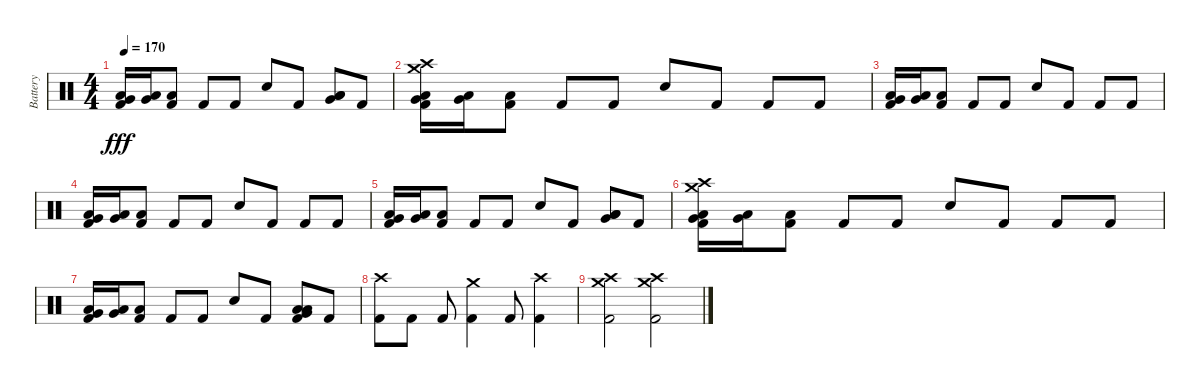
\track ("Battery" "Battery") {instrument percussion}
\staff {score}
\articulation defaults
\ts (4 4)
\tempo 170
\clef neutral
\ks c
("Low Tom (hit)" "Very Low Tom (hit)" "Kick (hit) 2").16{dy fff} ("Very Low Tom (hit)" "Low Floor Tom (hit)").16 ("Low Floor Tom (hit)" "Kick (hit) 2").8 "Kick (hit) 2".8 "Kick (hit) 2".8 "Snare (hit) 2".8 "Kick (hit) 2".8 ("Low Tom (hit)" "Very Low Tom (hit)" "Low Floor Tom (hit)").8 "Kick (hit) 2".8 |
("Crash high (hit)" "Crash medium (hit)" "Low Tom (hit)" "Very Low Tom (hit)" "Kick (hit) 2").16 ("Very Low Tom (hit)" "Low Floor Tom (hit)").16 ("Low Floor Tom (hit)" "Kick (hit) 2").8 "Kick (hit) 2".8 "Kick (hit) 2".8 "Snare (hit) 2".8 "Kick (hit) 2".8 "Kick (hit) 2".8 "Kick (hit) 2".8 |
("Low Tom (hit)" "Very Low Tom (hit)" "Kick (hit) 2").16 ("Very Low Tom (hit)" "Low Floor Tom (hit)").16 ("Low Floor Tom (hit)" "Kick (hit) 2").8 "Kick (hit) 2".8 "Kick (hit) 2".8 "Snare (hit) 2".8 "Kick (hit) 2".8 "Kick (hit) 2".8 "Kick (hit) 2".8 |
("Low Tom (hit)" "Very Low Tom (hit)" "Kick (hit) 2").16 ("Very Low Tom (hit)" "Low Floor Tom (hit)").16 ("Low Floor Tom (hit)" "Kick (hit) 2").8 "Kick (hit) 2".8 "Kick (hit) 2".8 "Snare (hit) 2".8 "Kick (hit) 2".8 "Kick (hit) 2".8 "Kick (hit) 2".8 |
("Low Tom (hit)" "Very Low Tom (hit)" "Kick (hit) 2").16 ("Very Low Tom (hit)" "Low Floor Tom (hit)").16 ("Low Floor Tom (hit)" "Kick (hit) 2").8 "Kick (hit) 2".8 "Kick (hit) 2".8 "Snare (hit) 2".8 "Kick (hit) 2".8 ("Low Tom (hit)" "Very Low Tom (hit)" "Low Floor Tom (hit)").8 "Kick (hit) 2".8 |
("Crash high (hit)" "Crash medium (hit)" "Low Tom (hit)" "Very Low Tom (hit)" "Kick (hit) 2").16 ("Very Low Tom (hit)" "Low Floor Tom (hit)").16 ("Low Floor Tom (hit)" "Kick (hit) 2").8 "Kick (hit) 2".8 "Kick (hit) 2".8 "Snare (hit) 2".8 "Kick (hit) 2".8 "Kick (hit) 2".8 "Kick (hit) 2".8 |
("Low Tom (hit)" "Very Low Tom (hit)" "Kick (hit) 2").16 ("Very Low Tom (hit)" "Low Floor Tom (hit)").16 ("Low Floor Tom (hit)" "Kick (hit) 2").8 "Kick (hit) 2".8 "Kick (hit) 2".8 "Snare (hit) 2".8 "Kick (hit) 2".8 ("Low Floor Tom (hit)" "Low Tom (hit)" "Very Low Tom (hit)" "Kick (hit) 2").8 "Kick (hit) 2".8 |
("Crash high (hit)" "Kick (hit) 2").8 "Kick (hit) 2".8 "Kick (hit) 2".8 ("Crash medium (hit)" "Kick (hit) 2").4 "Kick (hit) 2".8 ("Crash high (hit)" "Kick (hit) 2").4 |
("Crash high (hit)" "Crash medium (hit)" "Kick (hit) 2").2 ("Crash high (hit)" "Crash medium (hit)" "Kick (hit) 2").2
